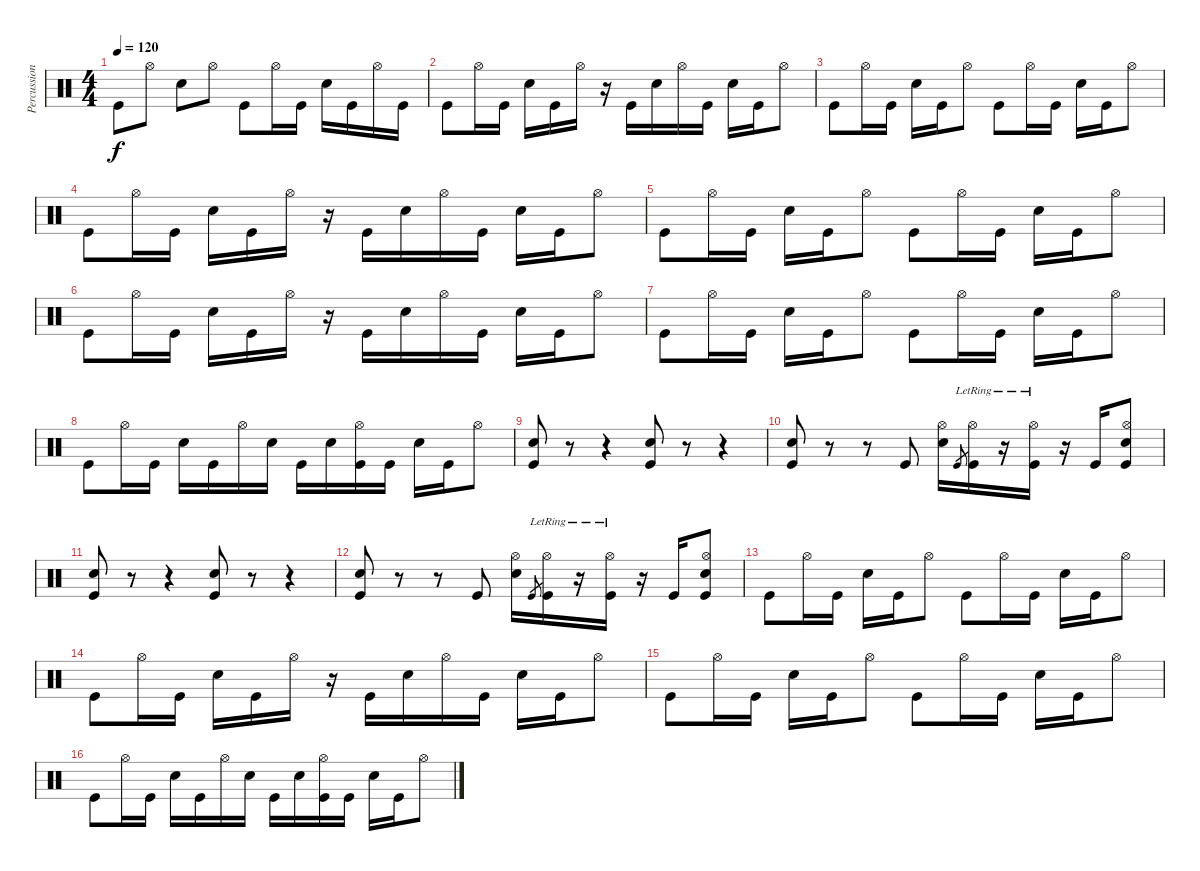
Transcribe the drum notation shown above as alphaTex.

\track ("Percussions" "Percussion") {instrument percussion}
\staff {score}
\articulation defaults
\ts (4 4)
\tempo 120
\clef neutral
\ks c "Kick (hit)".8{dy f} "Hi-Hat (open)".8 "Electric Snare (hit)".8 "Hi-Hat (open)".8 "Kick (hit)".8 "Hi-Hat (open)".16 "Kick (hit)".16 "Electric Snare (hit)".16 "Kick (hit)".16 "Hi-Hat (open)".16 "Kick (hit)".16
|
"Kick (hit)".8 "Hi-Hat (open)".16 "Kick (hit)".16 "Electric Snare (hit)".16 "Kick (hit)".16 "Hi-Hat (open)".16 r.16 "Kick (hit)".16 "Electric Snare (hit)".16 "Hi-Hat (open)".16 "Kick (hit)".16 "Electric Snare (hit)".16 "Kick (hit)".16 "Hi-Hat (open)".8 |
"Kick (hit)".8 "Hi-Hat (open)".16 "Kick (hit)".16 "Electric Snare (hit)".16 "Kick (hit)".16 "Hi-Hat (open)".8 "Kick (hit)".8 "Hi-Hat (open)".16 "Kick (hit)".16 "Electric Snare (hit)".16 "Kick (hit)".16 "Hi-Hat (open)".8 |
"Kick (hit)".8 "Hi-Hat (open)".16 "Kick (hit)".16 "Electric Snare (hit)".16 "Kick (hit)".16 "Hi-Hat (open)".16 r.16 "Kick (hit)".16 "Electric Snare (hit)".16 "Hi-Hat (open)".16 "Kick (hit)".16 "Electric Snare (hit)".16 "Kick (hit)".16 "Hi-Hat (open)".8 |
"Kick (hit)".8 "Hi-Hat (open)".16 "Kick (hit)".16 "Electric Snare (hit)".16 "Kick (hit)".16 "Hi-Hat (open)".8 "Kick (hit)".8 "Hi-Hat (open)".16 "Kick (hit)".16 "Electric Snare (hit)".16 "Kick (hit)".16 "Hi-Hat (open)".8 |
"Kick (hit)".8 "Hi-Hat (open)".16 "Kick (hit)".16 "Electric Snare (hit)".16 "Kick (hit)".16 "Hi-Hat (open)".16 r.16 "Kick (hit)".16 "Electric Snare (hit)".16 "Hi-Hat (open)".16 "Kick (hit)".16 "Electric Snare (hit)".16 "Kick (hit)".16 "Hi-Hat (open)".8 |
"Kick (hit)".8 "Hi-Hat (open)".16 "Kick (hit)".16 "Electric Snare (hit)".16 "Kick (hit)".16 "Hi-Hat (open)".8 "Kick (hit)".8 "Hi-Hat (open)".16 "Kick (hit)".16 "Electric Snare (hit)".16 "Kick (hit)".16 "Hi-Hat (open)".8 |
"Kick (hit)".8 "Hi-Hat (open)".16 "Kick (hit)".16 "Electric Snare (hit)".16 "Kick (hit)".16 "Hi-Hat (open)".16 "Electric Snare (hit)".16 "Kick (hit)".16 "Electric Snare (hit)".16 ("Hi-Hat (open)" "Kick (hit)").16 "Kick (hit)".16 "Electric Snare (hit)".16 "Kick (hit)".16 "Hi-Hat (open)".8 |
("Electric Snare (hit)" "Kick (hit)").8 r.8 r.4 ("Electric Snare (hit)" "Kick (hit)").8 r.8 r.4 |
("Electric Snare (hit)" "Kick (hit)").8 r.8 r.8 "Kick (hit)".8 ("Hi-Hat (open)" "Electric Snare (hit)").16 "Kick (hit)".8{gr} ("Hi-Hat (open)"{lr} "Kick (hit)").16 r.16 ("Hi-Hat (open)"{lr} "Kick (hit)").16 r.16 "Kick (hit)".16 ("Hi-Hat (open)" "Electric Snare (hit)" "Kick (hit)").8 |
("Electric Snare (hit)" "Kick (hit)").8 r.8 r.4 ("Electric Snare (hit)" "Kick (hit)").8 r.8 r.4 |
("Electric Snare (hit)" "Kick (hit)").8 r.8 r.8 "Kick (hit)".8 ("Hi-Hat (open)" "Electric Snare (hit)").16 "Kick (hit)".8{gr} ("Hi-Hat (open)"{lr} "Kick (hit)").16 r.16 ("Hi-Hat (open)"{lr} "Kick (hit)").16 r.16 "Kick (hit)".16 ("Hi-Hat (open)" "Electric Snare (hit)" "Kick (hit)").8 |
"Kick (hit)".8 "Hi-Hat (open)".16 "Kick (hit)".16 "Electric Snare (hit)".16 "Kick (hit)".16 "Hi-Hat (open)".8 "Kick (hit)".8 "Hi-Hat (open)".16 "Kick (hit)".16 "Electric Snare (hit)".16 "Kick (hit)".16 "Hi-Hat (open)".8 |
"Kick (hit)".8 "Hi-Hat (open)".16 "Kick (hit)".16 "Electric Snare (hit)".16 "Kick (hit)".16 "Hi-Hat (open)".16 r.16 "Kick (hit)".16 "Electric Snare (hit)".16 "Hi-Hat (open)".16 "Kick (hit)".16 "Electric Snare (hit)".16 "Kick (hit)".16 "Hi-Hat (open)".8 |
"Kick (hit)".8 "Hi-Hat (open)".16 "Kick (hit)".16 "Electric Snare (hit)".16 "Kick (hit)".16 "Hi-Hat (open)".8 "Kick (hit)".8 "Hi-Hat (open)".16 "Kick (hit)".16 "Electric Snare (hit)".16 "Kick (hit)".16 "Hi-Hat (open)".8 |
"Kick (hit)".8 "Hi-Hat (open)".16 "Kick (hit)".16 "Electric Snare (hit)".16 "Kick (hit)".16 "Hi-Hat (open)".16 "Electric Snare (hit)".16 "Kick (hit)".16 "Electric Snare (hit)".16 ("Hi-Hat (open)" "Kick (hit)").16 "Kick (hit)".16 "Electric Snare (hit)".16 "Kick (hit)".16 "Hi-Hat (open)".8
